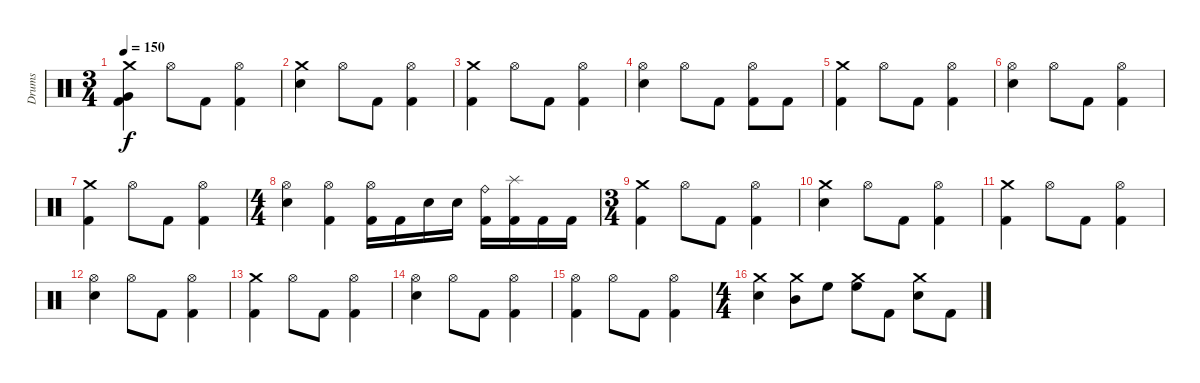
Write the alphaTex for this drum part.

\track ("Drums" "Drums") {instrument percussion}
\staff {score}
\articulation defaults
\ts (3 4)
\tempo 150
\clef neutral
\ks c
("Crash medium (hit)" "Very Low Tom (hit)" "Kick (hit) 2").4{dy f} "Hi-Hat (open)".8 "Kick (hit) 2".8 ("Hi-Hat (open)" "Kick (hit) 2").4 |
("Crash medium (hit)" "Snare (hit) 2").4 "Hi-Hat (open)".8 "Kick (hit) 2".8 ("Hi-Hat (open)" "Kick (hit) 2").4 |
("Crash medium (hit)" "Kick (hit) 2").4 "Hi-Hat (open)".8 "Kick (hit) 2".8 ("Hi-Hat (open)" "Kick (hit) 2").4 |
("Hi-Hat (open)" "Snare (hit) 2").4 "Hi-Hat (open)".8 "Kick (hit) 2".8 ("Hi-Hat (open)" "Kick (hit) 2").8 "Kick (hit) 2".8 |
("Crash medium (hit)" "Kick (hit) 2").4 "Hi-Hat (open)".8 "Kick (hit) 2".8 ("Hi-Hat (open)" "Kick (hit) 2").4 |
("Hi-Hat (open)" "Snare (hit) 2").4 "Hi-Hat (open)".8 "Kick (hit) 2".8 ("Hi-Hat (open)" "Kick (hit) 2").4 |
("Crash medium (hit)" "Kick (hit) 2").4 "Hi-Hat (open)".8 "Kick (hit) 2".8 ("Hi-Hat (open)" "Kick (hit) 2").4 |
\ts (4 4)
("Hi-Hat (open)" "Snare (hit) 2").4 ("Hi-Hat (open)" "Kick (hit) 2").4 ("Hi-Hat (open)" "Kick (hit) 2").16 "Kick (hit) 2".16 "Snare (hit) 2".16 "Snare (hit) 2".16 ("Ride (bell)" "Kick (hit) 2").16 ("Splash (hit)" "Kick (hit) 2").16 "Kick (hit) 2".16 "Kick (hit) 2".16 |
\ts (3 4)
("Crash medium (hit)" "Kick (hit) 2").4 "Hi-Hat (open)".8 "Kick (hit) 2".8 ("Hi-Hat (open)" "Kick (hit) 2").4 |
("Crash medium (hit)" "Snare (hit) 2").4 "Hi-Hat (open)".8 "Kick (hit) 2".8 ("Hi-Hat (open)" "Kick (hit) 2").4 |
("Crash medium (hit)" "Kick (hit) 2").4 "Hi-Hat (open)".8 "Kick (hit) 2".8 ("Hi-Hat (open)" "Kick (hit) 2").4 |
("Hi-Hat (open)" "Snare (hit) 2").4 "Hi-Hat (open)".8 "Kick (hit) 2".8 ("Hi-Hat (open)" "Kick (hit) 2").4 |
("Crash medium (hit)" "Kick (hit) 2").4 "Hi-Hat (open)".8 "Kick (hit) 2".8 ("Hi-Hat (open)" "Kick (hit) 2").4 |
("Hi-Hat (open)" "Snare (hit) 2").4 "Hi-Hat (open)".8 "Kick (hit) 2".8 ("Hi-Hat (open)" "Kick (hit) 2").4 |
("Hi-Hat (open)" "Kick (hit) 2").4 "Hi-Hat (open)".8 "Kick (hit) 2".8 ("Hi-Hat (open)" "Kick (hit) 2").4 |
\ts (4 4)
("Crash medium (hit)" "Snare (hit) 2").4 ("Crash medium (hit)" "Mid Tom (hit)").8 "High Floor Tom (hit)".8 ("Crash medium (hit)" "High Floor Tom (hit)").8 "Kick (hit) 2".8 ("Crash medium (hit)" "Snare (hit) 2").8 "Kick (hit) 2".8
